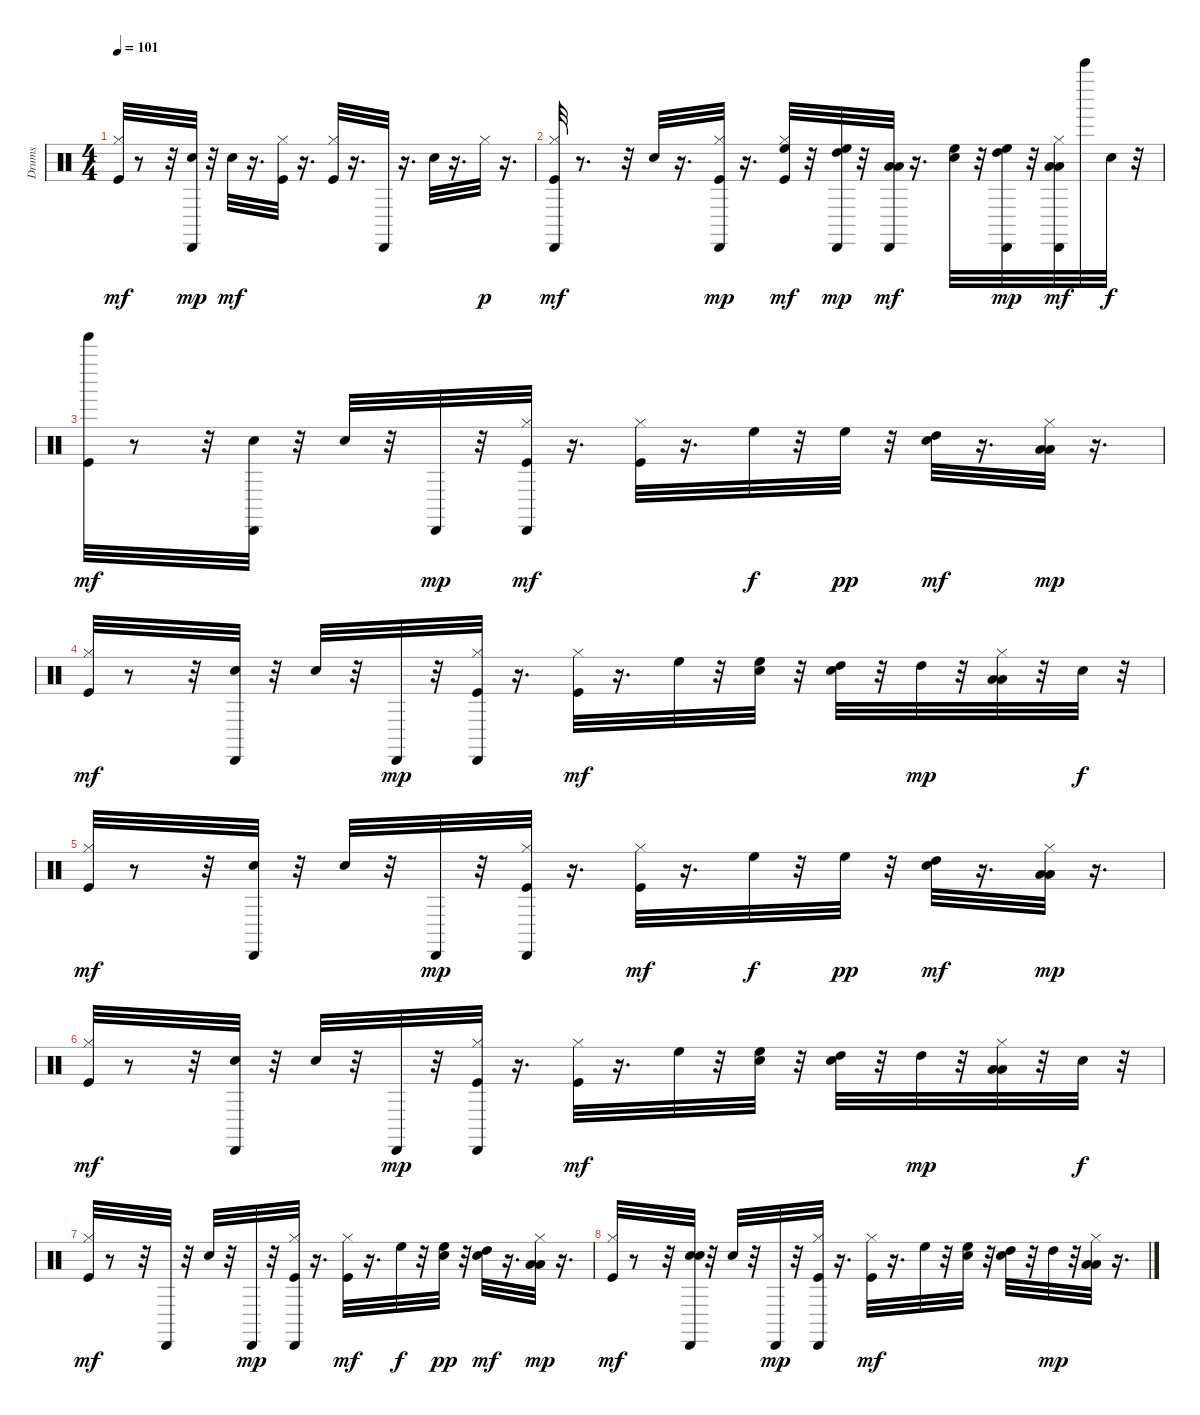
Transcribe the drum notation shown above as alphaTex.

\track ("Drums" "Drums") {instrument percussion}
\staff {score}
\articulation defaults
\ts (4 4)
\tempo 101
\clef neutral
\ks c
("Kick (hit)" "Hi-Hat (closed)").32{dy mf} r.8 r.32 ("Hand Clap (hit)" "Cabasa (hit)").32{dy mp} r.32 "Snare (hit) 2".32{dy mf} r.16{d} ("Kick (hit)" "Hi-Hat (closed)").32 r.16{d} ("Kick (hit)" "Hi-Hat (closed)").32 r.16{d} "Cabasa (hit)".32 r.16{d} "Snare (hit) 2".32 r.16{d} "Hi-Hat (closed)".32{dy p} r.16{d} |
("Kick (hit)" "Hi-Hat (closed)" "Cabasa (hit)").32{dy mf} r.8{d} r.32 "Snare (hit) 2".32 r.16{d} ("Kick (hit)" "Hi-Hat (closed)" "Cabasa (hit)").32{dy mp} r.16{d} ("Kick (hit)" "Hi-Hat (closed)" "High Floor Tom (hit)").32{dy mf} r.32 ("High Tom (hit)" "High Floor Tom (hit)" "Cabasa (hit)").32{dy mp} r.32 ("Low Floor Tom (hit)" "Low Tom (hit)" "Cabasa (hit)").32{dy mf} r.16{d} ("Snare (hit) 2" "High Floor Tom (hit)").32 r.32 ("High Tom (hit)" "High Floor Tom (hit)" "Cabasa (hit)").32{dy mp} r.32 ("Low Floor Tom (hit)" "Hi-Hat (closed)" "Low Tom (hit)" "Cabasa (hit)").32{dy mf} "Bell Tree (hit)".32 "Hand Clap (hit)".32{dy f} r.32 |
("Kick (hit)" "Tinkle Bell (hit)").32{dy mf} r.8 r.32 ("Hand Clap (hit)" "Cabasa (hit)").32 r.32 "Snare (hit) 2".32 r.32 "Cabasa (hit)".32{dy mp} r.32 ("Kick (hit)" "Hi-Hat (closed)" "Cabasa (hit)").32{dy mf} r.16{d} ("Kick (hit)" "Hi-Hat (closed)").32 r.16{d} "High Floor Tom (hit)".32{dy f} r.32 "High Floor Tom (hit)".32{dy pp} r.32 ("Snare (hit) 2" "High Tom (hit)").32{dy mf} r.16{d} ("Low Floor Tom (hit)" "Hi-Hat (closed)" "Low Tom (hit)").32{dy mp} r.16{d} |
("Kick (hit)" "Hi-Hat (closed)").32{dy mf} r.8 r.32 ("Hand Clap (hit)" "Cabasa (hit)").32 r.32 "Snare (hit) 2".32 r.32 "Cabasa (hit)".32{dy mp} r.32 ("Kick (hit)" "Hi-Hat (closed)" "Cabasa (hit)").32 r.16{d} ("Kick (hit)" "Hi-Hat (closed)").32{dy mf} r.16{d} "High Floor Tom (hit)".32 r.32 ("Hand Clap (hit)" "High Floor Tom (hit)").32 r.32 ("Snare (hit) 2" "High Tom (hit)").32 r.32 "High Tom (hit)".32{dy mp} r.32 ("Low Floor Tom (hit)" "Hi-Hat (closed)" "Low Tom (hit)").32 r.32 "Hand Clap (hit)".32{dy f} r.32 |
("Kick (hit)" "Hi-Hat (closed)").32{dy mf} r.8 r.32 ("Hand Clap (hit)" "Cabasa (hit)").32 r.32 "Snare (hit) 2".32 r.32 "Cabasa (hit)".32{dy mp} r.32 ("Kick (hit)" "Hi-Hat (closed)" "Cabasa (hit)").32 r.16{d} ("Kick (hit)" "Hi-Hat (closed)").32{dy mf} r.16{d} "High Floor Tom (hit)".32{dy f} r.32 "High Floor Tom (hit)".32{dy pp} r.32 ("Snare (hit) 2" "High Tom (hit)").32{dy mf} r.16{d} ("Low Floor Tom (hit)" "Hi-Hat (closed)" "Low Tom (hit)").32{dy mp} r.16{d} |
("Kick (hit)" "Hi-Hat (closed)").32{dy mf} r.8 r.32 ("Hand Clap (hit)" "Cabasa (hit)").32 r.32 "Snare (hit) 2".32 r.32 "Cabasa (hit)".32{dy mp} r.32 ("Kick (hit)" "Hi-Hat (closed)" "Cabasa (hit)").32 r.16{d} ("Kick (hit)" "Hi-Hat (closed)").32{dy mf} r.16{d} "High Floor Tom (hit)".32 r.32 ("Hand Clap (hit)" "High Floor Tom (hit)").32 r.32 ("Snare (hit) 2" "High Tom (hit)").32 r.32 "High Tom (hit)".32{dy mp} r.32 ("Low Floor Tom (hit)" "Hi-Hat (closed)" "Low Tom (hit)").32 r.32 "Hand Clap (hit)".32{dy f} r.32 |
("Kick (hit)" "Hi-Hat (closed)").32{dy mf} r.8 r.32 "Cabasa (hit)".32 r.32 "Snare (hit) 2".32 r.32 "Cabasa (hit)".32{dy mp} r.32 ("Kick (hit)" "Hi-Hat (closed)" "Cabasa (hit)").32 r.16{d} ("Kick (hit)" "Hi-Hat (closed)").32{dy mf} r.16{d} "High Floor Tom (hit)".32{dy f} r.32 ("Hand Clap (hit)" "High Floor Tom (hit)").32{dy pp} r.32 ("Snare (hit) 2" "High Tom (hit)").32{dy mf} r.16{d} ("Low Floor Tom (hit)" "Hi-Hat (closed)" "Low Tom (hit)").32{dy mp} r.16{d} |
("Kick (hit)" "Hi-Hat (closed)").32{dy mf} r.8 r.32 ("Hand Clap (hit)" "Hand Clap (hit)" "Cabasa (hit)").32 r.32 "Snare (hit) 2".32 r.32 "Cabasa (hit)".32{dy mp} r.32 ("Kick (hit)" "Hi-Hat (closed)" "Cabasa (hit)").32 r.16{d} ("Kick (hit)" "Hi-Hat (closed)").32{dy mf} r.16{d} "High Floor Tom (hit)".32 r.32 ("Hand Clap (hit)" "High Floor Tom (hit)").32 r.32 ("Snare (hit) 2" "High Tom (hit)").32 r.32 "High Tom (hit)".32{dy mp} r.32 ("Low Floor Tom (hit)" "Hi-Hat (closed)" "Low Tom (hit)").32 r.16{d}
